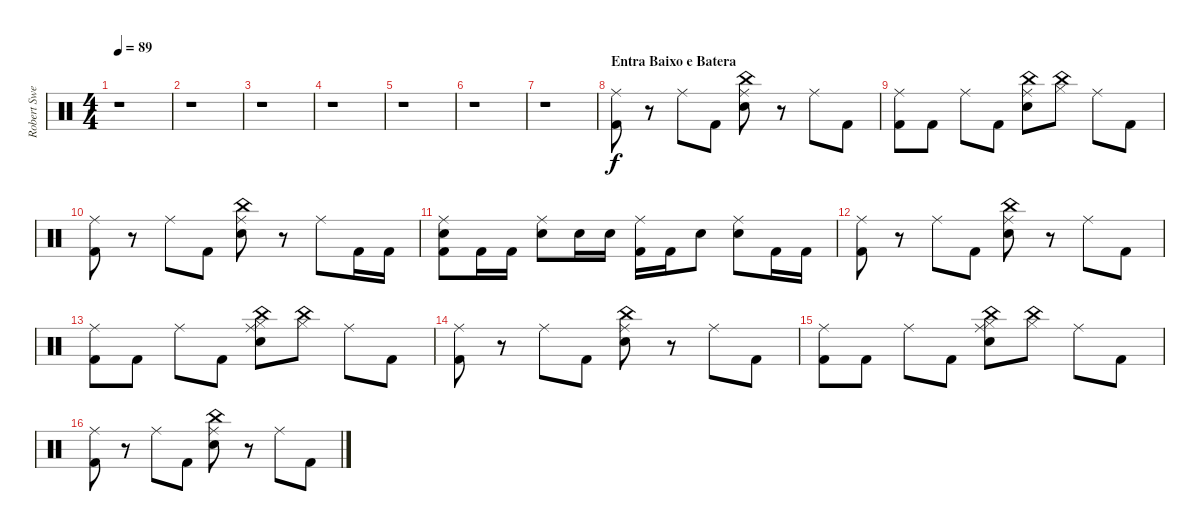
\track ("Robert Sweet" "Robert Swe") {instrument percussion}
\staff {score}
\articulation defaults
\ts (4 4)
\tempo 89
\clef neutral
\ks c
r.1{dy f} |
r.1 |
r.1 |
r.1 |
r.1 |
r.1 |
r.1 |
\section ("" "Entra Baixo e Batera")
("Ride (middle)" "Kick (hit) 2").8 r.8 "Ride (middle)".8 "Kick (hit) 2".8 ("Ride (middle)" "China (hit)" "Electric Snare (hit)").8 r.8 "Ride (middle)".8 "Kick (hit) 2".8 |
("Ride (middle)" "Kick (hit) 2").8 "Kick (hit) 2".8 "Ride (middle)".8 "Kick (hit) 2".8 ("Ride (middle)" "China (hit)" "Electric Snare (hit)").8 ("China (hit)" "Hi-Hat (closed)").8 "Ride (middle)".8 "Kick (hit) 2".8 |
("Ride (middle)" "Kick (hit) 2").8 r.8 "Ride (middle)".8 "Kick (hit) 2".8 ("Ride (middle)" "China (hit)" "Electric Snare (hit)").8 r.8 "Ride (middle)".8 "Kick (hit) 2".16 "Kick (hit) 2".16 |
("Ride (middle)" "Kick (hit) 2" "Electric Snare (hit)").8 "Kick (hit) 2".16 "Kick (hit) 2".16 ("Ride (middle)" "Electric Snare (hit)").8 "Electric Snare (hit)".16 "Electric Snare (hit)".16 ("Ride (middle)" "Kick (hit) 2").16 "Kick (hit) 2".16 "Electric Snare (hit)".8 ("Ride (middle)" "Electric Snare (hit)").8 "Kick (hit) 2".16 "Kick (hit) 2".16 |
("Ride (middle)" "Kick (hit) 2").8 r.8 "Ride (middle)".8 "Kick (hit) 2".8 ("Ride (middle)" "China (hit)" "Electric Snare (hit)").8 r.8 "Ride (middle)".8 "Kick (hit) 2".8 |
("Ride (middle)" "Kick (hit) 2").8 "Kick (hit) 2".8 "Ride (middle)".8 "Kick (hit) 2".8 ("Ride (middle)" "China (hit)" "Hi-Hat (closed)" "Electric Snare (hit)").8 ("China (hit)" "Hi-Hat (closed)").8 "Ride (middle)".8 "Kick (hit) 2".8 |
("Ride (middle)" "Kick (hit) 2").8 r.8 "Ride (middle)".8 "Kick (hit) 2".8 ("Ride (middle)" "China (hit)" "Electric Snare (hit)").8 r.8 "Ride (middle)".8 "Kick (hit) 2".8 |
("Ride (middle)" "Kick (hit) 2").8 "Kick (hit) 2".8 "Ride (middle)".8 "Kick (hit) 2".8 ("Ride (middle)" "China (hit)" "Hi-Hat (closed)" "Electric Snare (hit)").8 ("China (hit)" "Hi-Hat (closed)").8 "Ride (middle)".8 "Kick (hit) 2".8 |
("Ride (middle)" "Kick (hit) 2").8 r.8 "Ride (middle)".8 "Kick (hit) 2".8 ("Ride (middle)" "China (hit)" "Electric Snare (hit)").8 r.8 "Ride (middle)".8 "Kick (hit) 2".8
